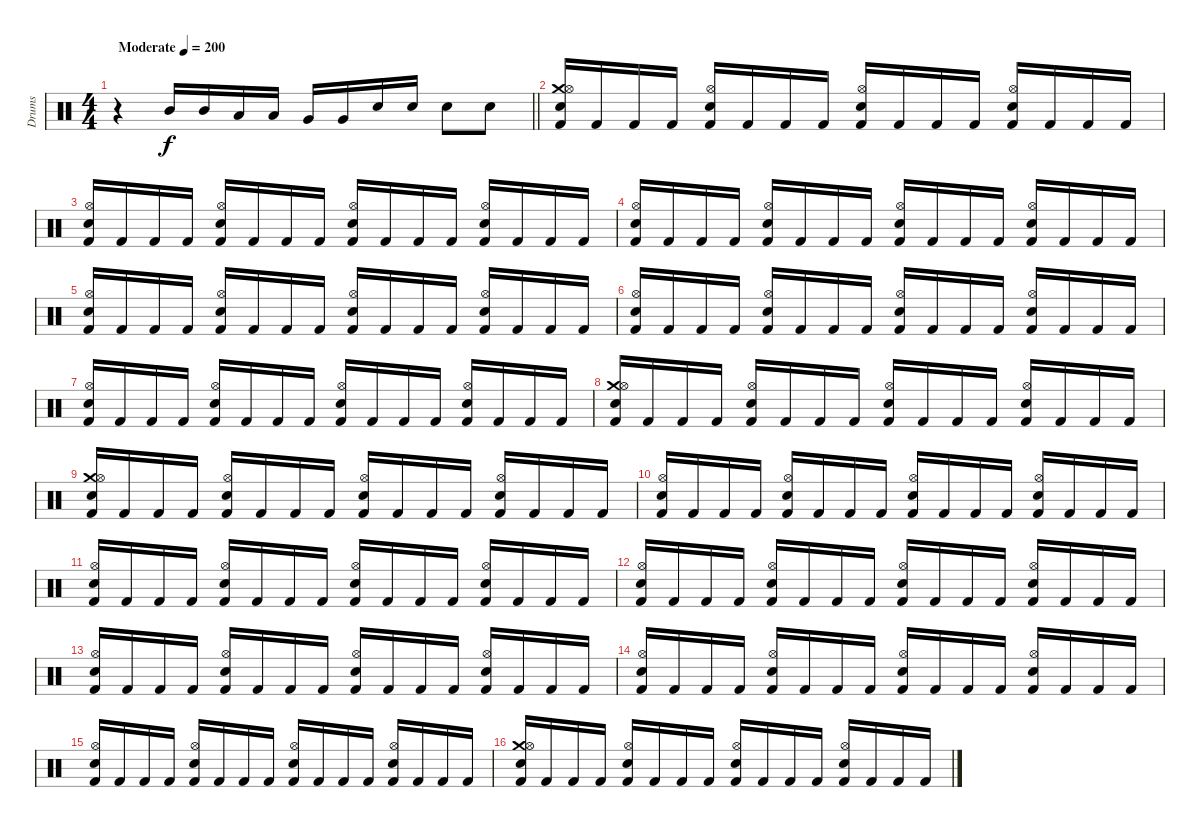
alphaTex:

\track ("Drums" "Drums") {instrument percussion}
\staff {score}
\articulation defaults
\ts (4 4)
\tempo (200 "Moderate")
\clef neutral
\barLineRight lightlight
\ks c
r.4{dy f} "Mid Tom (hit)".16 "Mid Tom (hit)".16 "Low Tom (hit)".16 "Low Tom (hit)".16 "Very Low Tom (hit)".16 "Very Low Tom (hit)".16 "Snare (hit) 2".16 "Snare (hit) 2".16 "Snare (hit) 2".8 "Snare (hit) 2".8 |
("Crash medium (hit)" "Hi-Hat (open)" "Snare (hit) 2" "Kick (hit) 2").16 "Kick (hit) 2".16 "Kick (hit) 2".16 "Kick (hit) 2".16 ("Hi-Hat (open)" "Snare (hit) 2" "Kick (hit) 2").16 "Kick (hit) 2".16 "Kick (hit) 2".16 "Kick (hit) 2".16 ("Hi-Hat (open)" "Snare (hit) 2" "Kick (hit) 2").16 "Kick (hit) 2".16 "Kick (hit) 2".16 "Kick (hit) 2".16 ("Hi-Hat (open)" "Snare (hit) 2" "Kick (hit) 2").16 "Kick (hit) 2".16 "Kick (hit) 2".16 "Kick (hit) 2".16 |
("Hi-Hat (open)" "Snare (hit) 2" "Kick (hit) 2").16 "Kick (hit) 2".16 "Kick (hit) 2".16 "Kick (hit) 2".16 ("Hi-Hat (open)" "Snare (hit) 2" "Kick (hit) 2").16 "Kick (hit) 2".16 "Kick (hit) 2".16 "Kick (hit) 2".16 ("Hi-Hat (open)" "Snare (hit) 2" "Kick (hit) 2").16 "Kick (hit) 2".16 "Kick (hit) 2".16 "Kick (hit) 2".16 ("Hi-Hat (open)" "Snare (hit) 2" "Kick (hit) 2").16 "Kick (hit) 2".16 "Kick (hit) 2".16 "Kick (hit) 2".16 |
("Hi-Hat (open)" "Snare (hit) 2" "Kick (hit) 2").16 "Kick (hit) 2".16 "Kick (hit) 2".16 "Kick (hit) 2".16 ("Hi-Hat (open)" "Snare (hit) 2" "Kick (hit) 2").16 "Kick (hit) 2".16 "Kick (hit) 2".16 "Kick (hit) 2".16 ("Hi-Hat (open)" "Snare (hit) 2" "Kick (hit) 2").16 "Kick (hit) 2".16 "Kick (hit) 2".16 "Kick (hit) 2".16 ("Hi-Hat (open)" "Snare (hit) 2" "Kick (hit) 2").16 "Kick (hit) 2".16 "Kick (hit) 2".16 "Kick (hit) 2".16 |
("Hi-Hat (open)" "Snare (hit) 2" "Kick (hit) 2").16 "Kick (hit) 2".16 "Kick (hit) 2".16 "Kick (hit) 2".16 ("Hi-Hat (open)" "Snare (hit) 2" "Kick (hit) 2").16 "Kick (hit) 2".16 "Kick (hit) 2".16 "Kick (hit) 2".16 ("Hi-Hat (open)" "Snare (hit) 2" "Kick (hit) 2").16 "Kick (hit) 2".16 "Kick (hit) 2".16 "Kick (hit) 2".16 ("Hi-Hat (open)" "Snare (hit) 2" "Kick (hit) 2").16 "Kick (hit) 2".16 "Kick (hit) 2".16 "Kick (hit) 2".16 |
("Hi-Hat (open)" "Snare (hit) 2" "Kick (hit) 2").16 "Kick (hit) 2".16 "Kick (hit) 2".16 "Kick (hit) 2".16 ("Hi-Hat (open)" "Snare (hit) 2" "Kick (hit) 2").16 "Kick (hit) 2".16 "Kick (hit) 2".16 "Kick (hit) 2".16 ("Hi-Hat (open)" "Snare (hit) 2" "Kick (hit) 2").16 "Kick (hit) 2".16 "Kick (hit) 2".16 "Kick (hit) 2".16 ("Hi-Hat (open)" "Snare (hit) 2" "Kick (hit) 2").16 "Kick (hit) 2".16 "Kick (hit) 2".16 "Kick (hit) 2".16 |
("Hi-Hat (open)" "Snare (hit) 2" "Kick (hit) 2").16 "Kick (hit) 2".16 "Kick (hit) 2".16 "Kick (hit) 2".16 ("Hi-Hat (open)" "Snare (hit) 2" "Kick (hit) 2").16 "Kick (hit) 2".16 "Kick (hit) 2".16 "Kick (hit) 2".16 ("Hi-Hat (open)" "Snare (hit) 2" "Kick (hit) 2").16 "Kick (hit) 2".16 "Kick (hit) 2".16 "Kick (hit) 2".16 ("Hi-Hat (open)" "Snare (hit) 2" "Kick (hit) 2").16 "Kick (hit) 2".16 "Kick (hit) 2".16 "Kick (hit) 2".16 |
("Crash medium (hit)" "Hi-Hat (open)" "Snare (hit) 2" "Kick (hit) 2").16 "Kick (hit) 2".16 "Kick (hit) 2".16 "Kick (hit) 2".16 ("Hi-Hat (open)" "Snare (hit) 2" "Kick (hit) 2").16 "Kick (hit) 2".16 "Kick (hit) 2".16 "Kick (hit) 2".16 ("Hi-Hat (open)" "Snare (hit) 2" "Kick (hit) 2").16 "Kick (hit) 2".16 "Kick (hit) 2".16 "Kick (hit) 2".16 ("Hi-Hat (open)" "Snare (hit) 2" "Kick (hit) 2").16 "Kick (hit) 2".16 "Kick (hit) 2".16 "Kick (hit) 2".16 |
("Crash medium (hit)" "Hi-Hat (open)" "Snare (hit) 2" "Kick (hit) 2").16 "Kick (hit) 2".16 "Kick (hit) 2".16 "Kick (hit) 2".16 ("Hi-Hat (open)" "Snare (hit) 2" "Kick (hit) 2").16 "Kick (hit) 2".16 "Kick (hit) 2".16 "Kick (hit) 2".16 ("Hi-Hat (open)" "Snare (hit) 2" "Kick (hit) 2").16 "Kick (hit) 2".16 "Kick (hit) 2".16 "Kick (hit) 2".16 ("Hi-Hat (open)" "Snare (hit) 2" "Kick (hit) 2").16 "Kick (hit) 2".16 "Kick (hit) 2".16 "Kick (hit) 2".16 |
("Hi-Hat (open)" "Snare (hit) 2" "Kick (hit) 2").16 "Kick (hit) 2".16 "Kick (hit) 2".16 "Kick (hit) 2".16 ("Hi-Hat (open)" "Snare (hit) 2" "Kick (hit) 2").16 "Kick (hit) 2".16 "Kick (hit) 2".16 "Kick (hit) 2".16 ("Hi-Hat (open)" "Snare (hit) 2" "Kick (hit) 2").16 "Kick (hit) 2".16 "Kick (hit) 2".16 "Kick (hit) 2".16 ("Hi-Hat (open)" "Snare (hit) 2" "Kick (hit) 2").16 "Kick (hit) 2".16 "Kick (hit) 2".16 "Kick (hit) 2".16 |
("Hi-Hat (open)" "Snare (hit) 2" "Kick (hit) 2").16 "Kick (hit) 2".16 "Kick (hit) 2".16 "Kick (hit) 2".16 ("Hi-Hat (open)" "Snare (hit) 2" "Kick (hit) 2").16 "Kick (hit) 2".16 "Kick (hit) 2".16 "Kick (hit) 2".16 ("Hi-Hat (open)" "Snare (hit) 2" "Kick (hit) 2").16 "Kick (hit) 2".16 "Kick (hit) 2".16 "Kick (hit) 2".16 ("Hi-Hat (open)" "Snare (hit) 2" "Kick (hit) 2").16 "Kick (hit) 2".16 "Kick (hit) 2".16 "Kick (hit) 2".16 |
("Hi-Hat (open)" "Snare (hit) 2" "Kick (hit) 2").16 "Kick (hit) 2".16 "Kick (hit) 2".16 "Kick (hit) 2".16 ("Hi-Hat (open)" "Snare (hit) 2" "Kick (hit) 2").16 "Kick (hit) 2".16 "Kick (hit) 2".16 "Kick (hit) 2".16 ("Hi-Hat (open)" "Snare (hit) 2" "Kick (hit) 2").16 "Kick (hit) 2".16 "Kick (hit) 2".16 "Kick (hit) 2".16 ("Hi-Hat (open)" "Snare (hit) 2" "Kick (hit) 2").16 "Kick (hit) 2".16 "Kick (hit) 2".16 "Kick (hit) 2".16 |
("Hi-Hat (open)" "Snare (hit) 2" "Kick (hit) 2").16 "Kick (hit) 2".16 "Kick (hit) 2".16 "Kick (hit) 2".16 ("Hi-Hat (open)" "Snare (hit) 2" "Kick (hit) 2").16 "Kick (hit) 2".16 "Kick (hit) 2".16 "Kick (hit) 2".16 ("Hi-Hat (open)" "Snare (hit) 2" "Kick (hit) 2").16 "Kick (hit) 2".16 "Kick (hit) 2".16 "Kick (hit) 2".16 ("Hi-Hat (open)" "Snare (hit) 2" "Kick (hit) 2").16 "Kick (hit) 2".16 "Kick (hit) 2".16 "Kick (hit) 2".16 |
("Hi-Hat (open)" "Snare (hit) 2" "Kick (hit) 2").16 "Kick (hit) 2".16 "Kick (hit) 2".16 "Kick (hit) 2".16 ("Hi-Hat (open)" "Snare (hit) 2" "Kick (hit) 2").16 "Kick (hit) 2".16 "Kick (hit) 2".16 "Kick (hit) 2".16 ("Hi-Hat (open)" "Snare (hit) 2" "Kick (hit) 2").16 "Kick (hit) 2".16 "Kick (hit) 2".16 "Kick (hit) 2".16 ("Hi-Hat (open)" "Snare (hit) 2" "Kick (hit) 2").16 "Kick (hit) 2".16 "Kick (hit) 2".16 "Kick (hit) 2".16 |
("Hi-Hat (open)" "Snare (hit) 2" "Kick (hit) 2").16 "Kick (hit) 2".16 "Kick (hit) 2".16 "Kick (hit) 2".16 ("Hi-Hat (open)" "Snare (hit) 2" "Kick (hit) 2").16 "Kick (hit) 2".16 "Kick (hit) 2".16 "Kick (hit) 2".16 ("Hi-Hat (open)" "Snare (hit) 2" "Kick (hit) 2").16 "Kick (hit) 2".16 "Kick (hit) 2".16 "Kick (hit) 2".16 ("Hi-Hat (open)" "Snare (hit) 2" "Kick (hit) 2").16 "Kick (hit) 2".16 "Kick (hit) 2".16 "Kick (hit) 2".16 |
("Crash medium (hit)" "Hi-Hat (open)" "Snare (hit) 2" "Kick (hit) 2").16 "Kick (hit) 2".16 "Kick (hit) 2".16 "Kick (hit) 2".16 ("Hi-Hat (open)" "Snare (hit) 2" "Kick (hit) 2").16 "Kick (hit) 2".16 "Kick (hit) 2".16 "Kick (hit) 2".16 ("Hi-Hat (open)" "Snare (hit) 2" "Kick (hit) 2").16 "Kick (hit) 2".16 "Kick (hit) 2".16 "Kick (hit) 2".16 ("Hi-Hat (open)" "Snare (hit) 2" "Kick (hit) 2").16 "Kick (hit) 2".16 "Kick (hit) 2".16 "Kick (hit) 2".16
